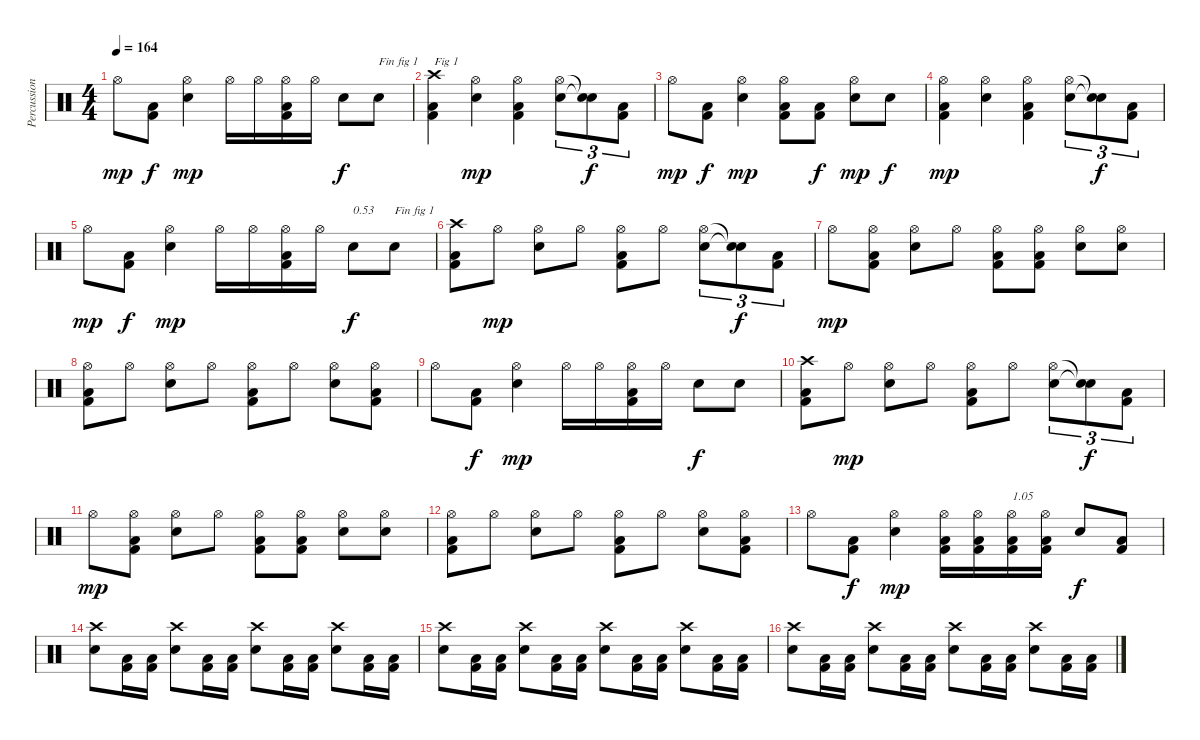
\track ("Percussions" "Percussion") {instrument percussion}
\staff {score}
\articulation defaults
\ts (4 4)
\tempo 164
\clef neutral
\ks c "Hi-Hat (open)".8{dy mp}
("Kick (hit) 2" "Low Floor Tom (hit)").8{dy f} ("Electric Snare (hit)" "Hi-Hat (open)").4{dy mp} "Hi-Hat (open)".16 "Hi-Hat (open)".16 ("Kick (hit) 2" "Low Floor Tom (hit)" "Hi-Hat (open)").16 "Hi-Hat (open)".16 "Electric Snare (hit)".8{dy f} "Electric Snare (hit)".8{txt "Fin fig 1"} |
("Kick (hit) 2" "Low Floor Tom (hit)" "Crash high (hit)").4{txt "Fig 1"} ("Electric Snare (hit)" "Hi-Hat (open)").4{dy mp} ("Kick (hit) 2" "Low Floor Tom (hit)" "Hi-Hat (open)").4 ("Electric Snare (hit)" "Hi-Hat (open)").8{tu (3 2)} ("Snare (hit)"{t} "Snare (hit)"{t}).8{tu (3 2) dy f} ("Kick (hit) 2" "Low Floor Tom (hit)").8{tu (3 2)} |
"Hi-Hat (open)".8{dy mp} ("Kick (hit) 2" "Low Floor Tom (hit)").8{dy f} ("Electric Snare (hit)" "Hi-Hat (open)").4{dy mp} ("Kick (hit) 2" "Low Floor Tom (hit)" "Hi-Hat (open)").8 ("Kick (hit) 2" "Low Floor Tom (hit)").8{dy f} ("Electric Snare (hit)" "Hi-Hat (open)").8{dy mp} "Electric Snare (hit)".8{dy f} |
("Kick (hit) 2" "Low Floor Tom (hit)" "Hi-Hat (open)").4{dy mp} ("Electric Snare (hit)" "Hi-Hat (open)").4 ("Kick (hit) 2" "Low Floor Tom (hit)" "Hi-Hat (open)").4 ("Electric Snare (hit)" "Hi-Hat (open)").8{tu (3 2)} ("Snare (hit)"{t} "Snare (hit)"{t}).8{tu (3 2) dy f} ("Kick (hit) 2" "Low Floor Tom (hit)").8{tu (3 2)} |
"Hi-Hat (open)".8{dy mp} ("Kick (hit) 2" "Low Floor Tom (hit)").8{dy f} ("Electric Snare (hit)" "Hi-Hat (open)").4{dy mp} "Hi-Hat (open)".16 "Hi-Hat (open)".16 ("Kick (hit) 2" "Low Floor Tom (hit)" "Hi-Hat (open)").16 "Hi-Hat (open)".16 "Electric Snare (hit)".8{txt "0.53" dy f} "Electric Snare (hit)".8{txt "Fin fig 1"} |
("Kick (hit) 2" "Low Floor Tom (hit)" "Crash high (hit)").8 "Hi-Hat (open)".8{dy mp} ("Electric Snare (hit)" "Hi-Hat (open)").8 "Hi-Hat (open)".8 ("Kick (hit) 2" "Low Floor Tom (hit)" "Hi-Hat (open)").8 "Hi-Hat (open)".8 ("Electric Snare (hit)" "Hi-Hat (open)").8{tu (3 2)} ("Snare (hit)"{t} "Snare (hit)"{t}).8{tu (3 2) dy f} ("Kick (hit) 2" "Low Floor Tom (hit)").8{tu (3 2)} |
"Hi-Hat (open)".8{dy mp} ("Kick (hit) 2" "Low Floor Tom (hit)" "Hi-Hat (open)").8 ("Electric Snare (hit)" "Hi-Hat (open)").8 "Hi-Hat (open)".8 ("Kick (hit) 2" "Low Floor Tom (hit)" "Hi-Hat (open)").8 ("Kick (hit) 2" "Low Floor Tom (hit)" "Hi-Hat (open)").8 ("Electric Snare (hit)" "Hi-Hat (open)").8 ("Electric Snare (hit)" "Hi-Hat (open)").8 |
("Kick (hit) 2" "Low Floor Tom (hit)" "Hi-Hat (open)").8 "Hi-Hat (open)".8 ("Electric Snare (hit)" "Hi-Hat (open)").8 "Hi-Hat (open)".8 ("Kick (hit) 2" "Low Floor Tom (hit)" "Hi-Hat (open)").8 "Hi-Hat (open)".8 ("Electric Snare (hit)" "Hi-Hat (open)").8 ("Kick (hit) 2" "Low Floor Tom (hit)" "Hi-Hat (open)").8 |
"Hi-Hat (open)".8 ("Kick (hit) 2" "Low Floor Tom (hit)").8{dy f} ("Electric Snare (hit)" "Hi-Hat (open)").4{dy mp} "Hi-Hat (open)".16 "Hi-Hat (open)".16 ("Kick (hit) 2" "Low Floor Tom (hit)" "Hi-Hat (open)").16 "Hi-Hat (open)".16 "Electric Snare (hit)".8{dy f} "Electric Snare (hit)".8 |
("Kick (hit) 2" "Low Floor Tom (hit)" "Crash high (hit)").8 "Hi-Hat (open)".8{dy mp} ("Electric Snare (hit)" "Hi-Hat (open)").8 "Hi-Hat (open)".8 ("Kick (hit) 2" "Low Floor Tom (hit)" "Hi-Hat (open)").8 "Hi-Hat (open)".8 ("Electric Snare (hit)" "Hi-Hat (open)").8{tu (3 2)} ("Snare (hit)"{t} "Snare (hit)"{t}).8{tu (3 2) dy f} ("Kick (hit) 2" "Low Floor Tom (hit)").8{tu (3 2)} |
"Hi-Hat (open)".8{dy mp} ("Kick (hit) 2" "Low Floor Tom (hit)" "Hi-Hat (open)").8 ("Electric Snare (hit)" "Hi-Hat (open)").8 "Hi-Hat (open)".8 ("Kick (hit) 2" "Low Floor Tom (hit)" "Hi-Hat (open)").8 ("Kick (hit) 2" "Low Floor Tom (hit)" "Hi-Hat (open)").8 ("Electric Snare (hit)" "Hi-Hat (open)").8 ("Electric Snare (hit)" "Hi-Hat (open)").8 |
("Kick (hit) 2" "Low Floor Tom (hit)" "Hi-Hat (open)").8 "Hi-Hat (open)".8 ("Electric Snare (hit)" "Hi-Hat (open)").8 "Hi-Hat (open)".8 ("Kick (hit) 2" "Low Floor Tom (hit)" "Hi-Hat (open)").8 "Hi-Hat (open)".8 ("Electric Snare (hit)" "Hi-Hat (open)").8 ("Kick (hit) 2" "Low Floor Tom (hit)" "Hi-Hat (open)").8 |
"Hi-Hat (open)".8 ("Kick (hit) 2" "Low Floor Tom (hit)").8{dy f} ("Electric Snare (hit)" "Hi-Hat (open)").4{dy mp} ("Kick (hit) 2" "Low Floor Tom (hit)" "Hi-Hat (open)").16 ("Kick (hit) 2" "Low Floor Tom (hit)" "Hi-Hat (open)").16 ("Kick (hit) 2" "Low Floor Tom (hit)" "Hi-Hat (open)").16{txt "1.05"} ("Kick (hit) 2" "Low Floor Tom (hit)" "Hi-Hat (open)").16 "Electric Snare (hit)".8{dy f} ("Kick (hit) 2" "Low Floor Tom (hit)").8 |
("Electric Snare (hit)" "Crash high (hit)").8 ("Kick (hit) 2" "Low Floor Tom (hit)").16 ("Kick (hit) 2" "Low Floor Tom (hit)").16 ("Electric Snare (hit)" "Crash high (hit)").8 ("Kick (hit) 2" "Low Floor Tom (hit)").16 ("Kick (hit) 2" "Low Floor Tom (hit)").16 ("Electric Snare (hit)" "Crash high (hit)").8 ("Kick (hit) 2" "Low Floor Tom (hit)").16 ("Kick (hit) 2" "Low Floor Tom (hit)").16 ("Electric Snare (hit)" "Crash high (hit)").8 ("Kick (hit) 2" "Low Floor Tom (hit)").16 ("Kick (hit) 2" "Low Floor Tom (hit)").16 |
("Electric Snare (hit)" "Crash high (hit)").8 ("Kick (hit) 2" "Low Floor Tom (hit)").16 ("Kick (hit) 2" "Low Floor Tom (hit)").16 ("Electric Snare (hit)" "Crash high (hit)").8 ("Kick (hit) 2" "Low Floor Tom (hit)").16 ("Kick (hit) 2" "Low Floor Tom (hit)").16 ("Electric Snare (hit)" "Crash high (hit)").8 ("Kick (hit) 2" "Low Floor Tom (hit)").16 ("Kick (hit) 2" "Low Floor Tom (hit)").16 ("Electric Snare (hit)" "Crash high (hit)").8 ("Kick (hit) 2" "Low Floor Tom (hit)").16 ("Kick (hit) 2" "Low Floor Tom (hit)").16 |
("Electric Snare (hit)" "Crash high (hit)").8 ("Kick (hit) 2" "Low Floor Tom (hit)").16 ("Kick (hit) 2" "Low Floor Tom (hit)").16 ("Electric Snare (hit)" "Crash high (hit)").8 ("Kick (hit) 2" "Low Floor Tom (hit)").16 ("Kick (hit) 2" "Low Floor Tom (hit)").16 ("Electric Snare (hit)" "Crash high (hit)").8 ("Kick (hit) 2" "Low Floor Tom (hit)").16 ("Kick (hit) 2" "Low Floor Tom (hit)").16 ("Electric Snare (hit)" "Crash high (hit)").8 ("Kick (hit) 2" "Low Floor Tom (hit)").16 ("Kick (hit) 2" "Low Floor Tom (hit)").16
